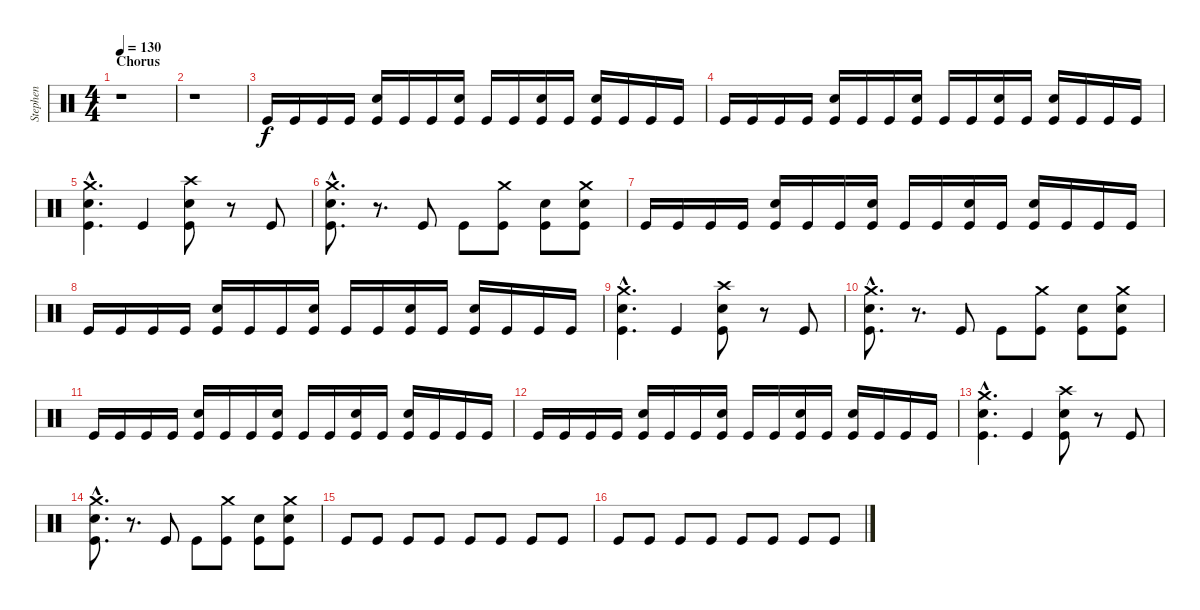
\track ("Stephen" "Stephen") {instrument percussion}
\staff {score}
\articulation defaults
\ts (4 4)
\section ("" "Chorus")
\tempo 130
\clef neutral
\ks c
r.1{dy ppp} |
r.1 |
"Kick (hit)".16{dy f} "Kick (hit)".16 "Kick (hit)".16 "Kick (hit)".16 ("Electric Snare (hit)" "Kick (hit)").16 "Kick (hit)".16 "Kick (hit)".16 ("Electric Snare (hit)" "Kick (hit)").16 "Kick (hit)".16 "Kick (hit)".16 ("Electric Snare (hit)" "Kick (hit)").16 "Kick (hit)".16 ("Electric Snare (hit)" "Kick (hit)").16 "Kick (hit)".16 "Kick (hit)".16 "Kick (hit)".16 |
"Kick (hit)".16 "Kick (hit)".16 "Kick (hit)".16 "Kick (hit)".16 ("Electric Snare (hit)" "Kick (hit)").16 "Kick (hit)".16 "Kick (hit)".16 ("Electric Snare (hit)" "Kick (hit)").16 "Kick (hit)".16 "Kick (hit)".16 ("Electric Snare (hit)" "Kick (hit)").16 "Kick (hit)".16 ("Electric Snare (hit)" "Kick (hit)").16 "Kick (hit)".16 "Kick (hit)".16 "Kick (hit)".16 |
("Electric Snare (hit)"{hac} "Crash medium (hit)"{hac} "Kick (hit)"{hac}).4{d} "Kick (hit)".4 ("Electric Snare (hit)" "Crash high (hit)" "Kick (hit)").8 r.8 "Kick (hit)".8 |
("Electric Snare (hit)"{hac} "Crash medium (hit)"{hac} "Kick (hit)"{hac}).8{d} r.8{d} "Kick (hit)".8 "Kick (hit)".8 ("Crash medium (hit)" "Kick (hit)").8 ("Electric Snare (hit)" "Kick (hit)").8 ("Electric Snare (hit)" "Crash medium (hit)" "Kick (hit)").8 |
"Kick (hit)".16 "Kick (hit)".16 "Kick (hit)".16 "Kick (hit)".16 ("Electric Snare (hit)" "Kick (hit)").16 "Kick (hit)".16 "Kick (hit)".16 ("Electric Snare (hit)" "Kick (hit)").16 "Kick (hit)".16 "Kick (hit)".16 ("Electric Snare (hit)" "Kick (hit)").16 "Kick (hit)".16 ("Electric Snare (hit)" "Kick (hit)").16 "Kick (hit)".16 "Kick (hit)".16 "Kick (hit)".16 |
"Kick (hit)".16 "Kick (hit)".16 "Kick (hit)".16 "Kick (hit)".16 ("Electric Snare (hit)" "Kick (hit)").16 "Kick (hit)".16 "Kick (hit)".16 ("Electric Snare (hit)" "Kick (hit)").16 "Kick (hit)".16 "Kick (hit)".16 ("Electric Snare (hit)" "Kick (hit)").16 "Kick (hit)".16 ("Electric Snare (hit)" "Kick (hit)").16 "Kick (hit)".16 "Kick (hit)".16 "Kick (hit)".16 |
("Electric Snare (hit)"{hac} "Crash medium (hit)"{hac} "Kick (hit)"{hac}).4{d} "Kick (hit)".4 ("Electric Snare (hit)" "Crash high (hit)" "Kick (hit)").8 r.8 "Kick (hit)".8 |
("Electric Snare (hit)"{hac} "Crash medium (hit)"{hac} "Kick (hit)"{hac}).8{d} r.8{d} "Kick (hit)".8 "Kick (hit)".8 ("Crash medium (hit)" "Kick (hit)").8 ("Electric Snare (hit)" "Kick (hit)").8 ("Electric Snare (hit)" "Crash medium (hit)" "Kick (hit)").8 |
"Kick (hit)".16 "Kick (hit)".16 "Kick (hit)".16 "Kick (hit)".16 ("Electric Snare (hit)" "Kick (hit)").16 "Kick (hit)".16 "Kick (hit)".16 ("Electric Snare (hit)" "Kick (hit)").16 "Kick (hit)".16 "Kick (hit)".16 ("Electric Snare (hit)" "Kick (hit)").16 "Kick (hit)".16 ("Electric Snare (hit)" "Kick (hit)").16 "Kick (hit)".16 "Kick (hit)".16 "Kick (hit)".16 |
"Kick (hit)".16 "Kick (hit)".16 "Kick (hit)".16 "Kick (hit)".16 ("Electric Snare (hit)" "Kick (hit)").16 "Kick (hit)".16 "Kick (hit)".16 ("Electric Snare (hit)" "Kick (hit)").16 "Kick (hit)".16 "Kick (hit)".16 ("Electric Snare (hit)" "Kick (hit)").16 "Kick (hit)".16 ("Electric Snare (hit)" "Kick (hit)").16 "Kick (hit)".16 "Kick (hit)".16 "Kick (hit)".16 |
("Electric Snare (hit)"{hac} "Crash medium (hit)"{hac} "Kick (hit)"{hac}).4{d} "Kick (hit)".4 ("Electric Snare (hit)" "Crash high (hit)" "Kick (hit)").8 r.8 "Kick (hit)".8 |
("Electric Snare (hit)"{hac} "Crash medium (hit)"{hac} "Kick (hit)"{hac}).8{d} r.8{d} "Kick (hit)".8 "Kick (hit)".8 ("Crash medium (hit)" "Kick (hit)").8 ("Electric Snare (hit)" "Kick (hit)").8 ("Electric Snare (hit)" "Crash medium (hit)" "Kick (hit)").8 |
"Kick (hit)".8 "Kick (hit)".8 "Kick (hit)".8 "Kick (hit)".8 "Kick (hit)".8 "Kick (hit)".8 "Kick (hit)".8 "Kick (hit)".8 |
"Kick (hit)".8 "Kick (hit)".8 "Kick (hit)".8 "Kick (hit)".8 "Kick (hit)".8 "Kick (hit)".8 "Kick (hit)".8 "Kick (hit)".8
